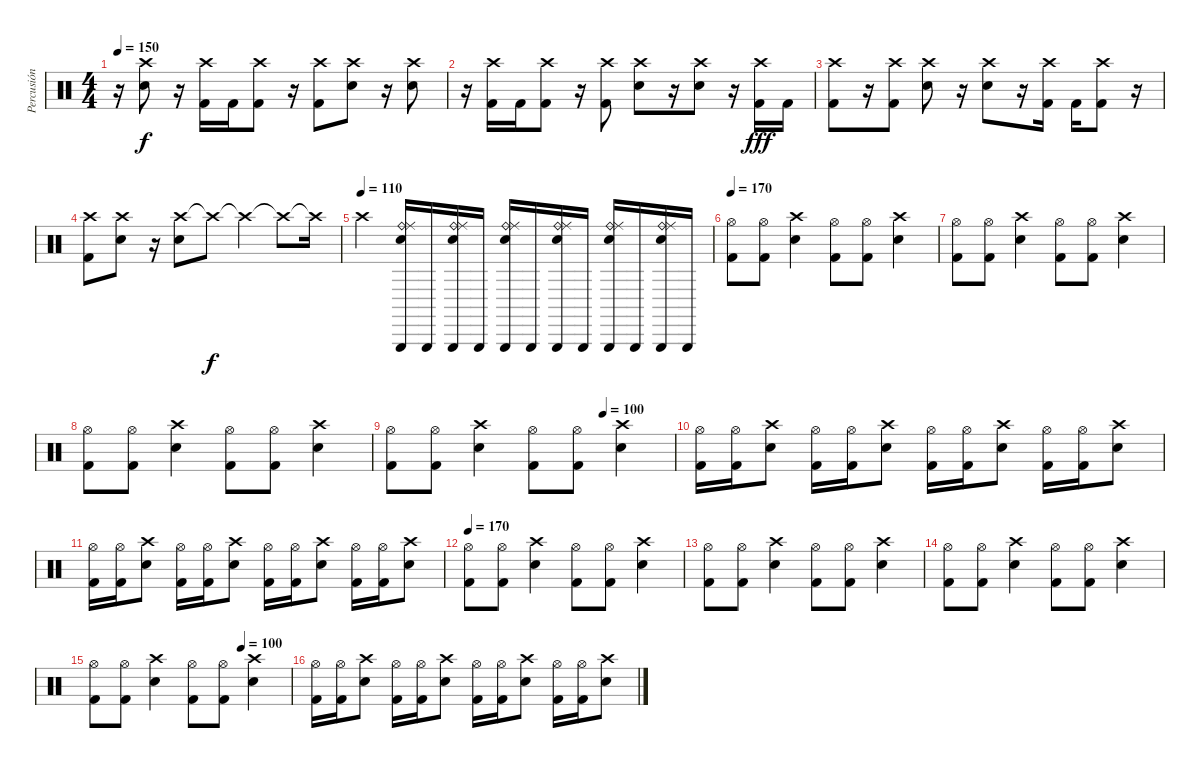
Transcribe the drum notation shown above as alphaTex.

\track ("Percusión" "Percusión") {instrument percussion}
\staff {score}
\articulation defaults
\ts (4 4)
\tempo 150
\clef neutral
\ks c
r.16{dy f} ("Crash high (hit)" "Electric Snare (hit)").8 r.16 ("Crash high (hit)" "Kick (hit) 2").16 "Kick (hit) 2".16 ("Crash high (hit)" "Kick (hit) 2").8 r.16 ("Crash high (hit)" "Kick (hit) 2").8 ("Crash high (hit)" "Electric Snare (hit)").8 r.16 ("Crash high (hit)" "Electric Snare (hit)").8 |
r.16 ("Crash high (hit)" "Kick (hit) 2").16 "Kick (hit) 2".16 ("Crash high (hit)" "Kick (hit) 2").8 r.16 ("Crash high (hit)" "Kick (hit) 2").8 ("Crash high (hit)" "Electric Snare (hit)").8 r.16 ("Crash high (hit)" "Electric Snare (hit)").8 r.16 ("Crash high (hit)" "Kick (hit) 2").16{dy fff} "Kick (hit) 2".16 |
("Crash high (hit)" "Kick (hit) 2").8 r.16 ("Crash high (hit)" "Kick (hit) 2").8 ("Crash high (hit)" "Electric Snare (hit)").8 r.16 ("Crash high (hit)" "Electric Snare (hit)").8 r.16 ("Crash high (hit)" "Kick (hit) 2").16 "Kick (hit) 2".16 ("Crash high (hit)" "Kick (hit) 2").8 r.16 |
("Crash high (hit)" "Kick (hit) 2").8 ("Crash high (hit)" "Electric Snare (hit)").8 r.16 ("Crash high (hit)" "Electric Snare (hit)").8 "Crash high (hit)"{t}.8{dy f} "Crash high (hit)"{t}.4 "Crash high (hit)"{t}.8 "Crash high (hit)"{t}.16 |
\tempo (110)
"Crash high (hit)".4 ("Triangle (hit)" "Metronome (bell)" "Ride (bell)" "Ride (middle)").16 "Triangle (hit)".16 ("Triangle (hit)" "Metronome (bell)" "Ride (bell)" "Ride (middle)").16 "Triangle (hit)".16 ("Triangle (hit)" "Metronome (bell)" "Ride (bell)" "Ride (middle)").16 "Triangle (hit)".16 ("Triangle (hit)" "Metronome (bell)" "Ride (bell)" "Ride (middle)").16 "Triangle (hit)".16 ("Triangle (hit)" "Metronome (bell)" "Ride (bell)" "Ride (middle)").16 "Triangle (hit)".16 ("Triangle (hit)" "Metronome (bell)" "Ride (bell)" "Ride (middle)").16 "Triangle (hit)".16 |
\tempo 170
("Hi-Hat (open)" "Kick (hit) 2").8 ("Hi-Hat (open)" "Kick (hit) 2").8 ("Crash high (hit)" "Electric Snare (hit)").4 ("Hi-Hat (open)" "Kick (hit) 2").8 ("Hi-Hat (open)" "Kick (hit) 2").8 ("Crash high (hit)" "Electric Snare (hit)").4 |
("Hi-Hat (open)" "Kick (hit) 2").8 ("Hi-Hat (open)" "Kick (hit) 2").8 ("Crash high (hit)" "Electric Snare (hit)").4 ("Hi-Hat (open)" "Kick (hit) 2").8 ("Hi-Hat (open)" "Kick (hit) 2").8 ("Crash high (hit)" "Electric Snare (hit)").4 |
("Hi-Hat (open)" "Kick (hit) 2").8 ("Hi-Hat (open)" "Kick (hit) 2").8 ("Crash high (hit)" "Electric Snare (hit)").4 ("Hi-Hat (open)" "Kick (hit) 2").8 ("Hi-Hat (open)" "Kick (hit) 2").8 ("Crash high (hit)" "Electric Snare (hit)").4 |
\tempo (100 0.75)
("Hi-Hat (open)" "Kick (hit) 2").8 ("Hi-Hat (open)" "Kick (hit) 2").8 ("Crash high (hit)" "Electric Snare (hit)").4 ("Hi-Hat (open)" "Kick (hit) 2").8 ("Hi-Hat (open)" "Kick (hit) 2").8 ("Crash high (hit)" "Electric Snare (hit)").4 |
("Hi-Hat (open)" "Kick (hit) 2").16 ("Hi-Hat (open)" "Kick (hit) 2").16 ("Crash high (hit)" "Electric Snare (hit)").8 ("Hi-Hat (open)" "Kick (hit) 2").16 ("Hi-Hat (open)" "Kick (hit) 2").16 ("Crash high (hit)" "Electric Snare (hit)").8 ("Hi-Hat (open)" "Kick (hit) 2").16 ("Hi-Hat (open)" "Kick (hit) 2").16 ("Crash high (hit)" "Electric Snare (hit)").8 ("Hi-Hat (open)" "Kick (hit) 2").16 ("Hi-Hat (open)" "Kick (hit) 2").16 ("Crash high (hit)" "Electric Snare (hit)").8 |
("Hi-Hat (open)" "Kick (hit) 2").16 ("Hi-Hat (open)" "Kick (hit) 2").16 ("Crash high (hit)" "Electric Snare (hit)").8 ("Hi-Hat (open)" "Kick (hit) 2").16 ("Hi-Hat (open)" "Kick (hit) 2").16 ("Crash high (hit)" "Electric Snare (hit)").8 ("Hi-Hat (open)" "Kick (hit) 2").16 ("Hi-Hat (open)" "Kick (hit) 2").16 ("Crash high (hit)" "Electric Snare (hit)").8 ("Hi-Hat (open)" "Kick (hit) 2").16 ("Hi-Hat (open)" "Kick (hit) 2").16 ("Crash high (hit)" "Electric Snare (hit)").8 |
\tempo 170
("Hi-Hat (open)" "Kick (hit) 2").8 ("Hi-Hat (open)" "Kick (hit) 2").8 ("Crash high (hit)" "Electric Snare (hit)").4 ("Hi-Hat (open)" "Kick (hit) 2").8 ("Hi-Hat (open)" "Kick (hit) 2").8 ("Crash high (hit)" "Electric Snare (hit)").4 |
("Hi-Hat (open)" "Kick (hit) 2").8 ("Hi-Hat (open)" "Kick (hit) 2").8 ("Crash high (hit)" "Electric Snare (hit)").4 ("Hi-Hat (open)" "Kick (hit) 2").8 ("Hi-Hat (open)" "Kick (hit) 2").8 ("Crash high (hit)" "Electric Snare (hit)").4 |
("Hi-Hat (open)" "Kick (hit) 2").8 ("Hi-Hat (open)" "Kick (hit) 2").8 ("Crash high (hit)" "Electric Snare (hit)").4 ("Hi-Hat (open)" "Kick (hit) 2").8 ("Hi-Hat (open)" "Kick (hit) 2").8 ("Crash high (hit)" "Electric Snare (hit)").4 |
\tempo (100 0.75)
("Hi-Hat (open)" "Kick (hit) 2").8 ("Hi-Hat (open)" "Kick (hit) 2").8 ("Crash high (hit)" "Electric Snare (hit)").4 ("Hi-Hat (open)" "Kick (hit) 2").8 ("Hi-Hat (open)" "Kick (hit) 2").8 ("Crash high (hit)" "Electric Snare (hit)").4 |
("Hi-Hat (open)" "Kick (hit) 2").16 ("Hi-Hat (open)" "Kick (hit) 2").16 ("Crash high (hit)" "Electric Snare (hit)").8 ("Hi-Hat (open)" "Kick (hit) 2").16 ("Hi-Hat (open)" "Kick (hit) 2").16 ("Crash high (hit)" "Electric Snare (hit)").8 ("Hi-Hat (open)" "Kick (hit) 2").16 ("Hi-Hat (open)" "Kick (hit) 2").16 ("Crash high (hit)" "Electric Snare (hit)").8 ("Hi-Hat (open)" "Kick (hit) 2").16 ("Hi-Hat (open)" "Kick (hit) 2").16 ("Crash high (hit)" "Electric Snare (hit)").8
